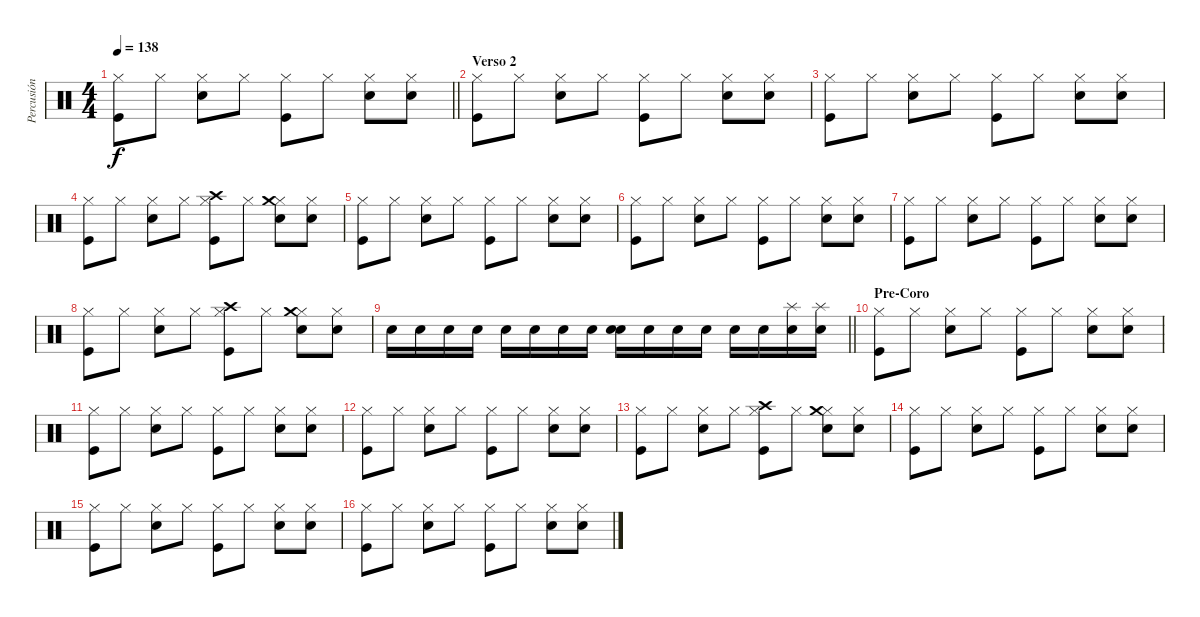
\track ("Percusión" "Percusión") {instrument percussion}
\staff {score}
\articulation defaults
\ts (4 4)
\tempo 138
\clef neutral
\barLineRight lightlight
\ks c
("Hi-Hat (closed)" "Kick (hit)").8{dy f} "Hi-Hat (closed)".8 ("Hi-Hat (closed)" "Snare (hit) 2").8 "Hi-Hat (closed)".8 ("Hi-Hat (closed)" "Kick (hit)").8 "Hi-Hat (closed)".8 ("Hi-Hat (closed)" "Snare (hit) 2").8 ("Hi-Hat (closed)" "Snare (hit) 2").8 |
\section ("" "Verso 2")
("Hi-Hat (closed)" "Kick (hit)").8 "Hi-Hat (closed)".8 ("Hi-Hat (closed)" "Snare (hit) 2").8 "Hi-Hat (closed)".8 ("Hi-Hat (closed)" "Kick (hit)").8 "Hi-Hat (closed)".8 ("Hi-Hat (closed)" "Snare (hit) 2").8 ("Hi-Hat (closed)" "Snare (hit) 2").8 |
("Hi-Hat (closed)" "Kick (hit)").8 "Hi-Hat (closed)".8 ("Hi-Hat (closed)" "Snare (hit) 2").8 "Hi-Hat (closed)".8 ("Hi-Hat (closed)" "Kick (hit)").8 "Hi-Hat (closed)".8 ("Hi-Hat (closed)" "Snare (hit) 2").8 ("Hi-Hat (closed)" "Snare (hit) 2").8 |
("Hi-Hat (closed)" "Kick (hit)").8 "Hi-Hat (closed)".8 ("Hi-Hat (closed)" "Snare (hit) 2").8 "Hi-Hat (closed)".8 ("Hi-Hat (closed)" "Kick (hit)" "Crash high (hit)").8 "Hi-Hat (closed)".8 ("Hi-Hat (closed)" "Snare (hit) 2" "Crash medium (hit)").8 ("Hi-Hat (closed)" "Snare (hit) 2").8 |
("Hi-Hat (closed)" "Kick (hit)").8 "Hi-Hat (closed)".8 ("Hi-Hat (closed)" "Snare (hit) 2").8 "Hi-Hat (closed)".8 ("Hi-Hat (closed)" "Kick (hit)").8 "Hi-Hat (closed)".8 ("Hi-Hat (closed)" "Snare (hit) 2").8 ("Hi-Hat (closed)" "Snare (hit) 2").8 |
("Hi-Hat (closed)" "Kick (hit)").8 "Hi-Hat (closed)".8 ("Hi-Hat (closed)" "Snare (hit) 2").8 "Hi-Hat (closed)".8 ("Hi-Hat (closed)" "Kick (hit)").8 "Hi-Hat (closed)".8 ("Hi-Hat (closed)" "Snare (hit) 2").8 ("Hi-Hat (closed)" "Snare (hit) 2").8 |
("Hi-Hat (closed)" "Kick (hit)").8 "Hi-Hat (closed)".8 ("Hi-Hat (closed)" "Snare (hit) 2").8 "Hi-Hat (closed)".8 ("Hi-Hat (closed)" "Kick (hit)").8 "Hi-Hat (closed)".8 ("Hi-Hat (closed)" "Snare (hit) 2").8 ("Hi-Hat (closed)" "Snare (hit) 2").8 |
("Hi-Hat (closed)" "Kick (hit)").8 "Hi-Hat (closed)".8 ("Hi-Hat (closed)" "Snare (hit) 2").8 "Hi-Hat (closed)".8 ("Hi-Hat (closed)" "Kick (hit)" "Crash high (hit)").8 "Hi-Hat (closed)".8 ("Hi-Hat (closed)" "Snare (hit) 2" "Crash medium (hit)").8 ("Hi-Hat (closed)" "Snare (hit) 2").8 |
\barLineRight lightlight "Snare (hit) 2".16 "Snare (hit) 2".16 "Snare (hit) 2".16 "Snare (hit) 2".16 "Snare (hit) 2".16 "Snare (hit) 2".16 "Snare (hit) 2".16 "Snare (hit) 2".16
("Snare (hit) 2" "Snare (hit) 2").16 "Snare (hit) 2".16 "Snare (hit) 2".16 "Snare (hit) 2".16 "Snare (hit) 2".16 "Snare (hit) 2".16 ("Splash (hit)" "Snare (hit) 2").16 ("Splash (hit)" "Snare (hit) 2").16 |
\section ("" "Pre-Coro")
("Hi-Hat (closed)" "Kick (hit)").8 "Hi-Hat (closed)".8 ("Hi-Hat (closed)" "Snare (hit) 2").8 "Hi-Hat (closed)".8 ("Hi-Hat (closed)" "Kick (hit)").8 "Hi-Hat (closed)".8 ("Hi-Hat (closed)" "Snare (hit) 2").8 ("Hi-Hat (closed)" "Snare (hit) 2").8 |
("Hi-Hat (closed)" "Kick (hit)").8 "Hi-Hat (closed)".8 ("Hi-Hat (closed)" "Snare (hit) 2").8 "Hi-Hat (closed)".8 ("Hi-Hat (closed)" "Kick (hit)").8 "Hi-Hat (closed)".8 ("Hi-Hat (closed)" "Snare (hit) 2").8 ("Hi-Hat (closed)" "Snare (hit) 2").8 |
("Hi-Hat (closed)" "Kick (hit)").8 "Hi-Hat (closed)".8 ("Hi-Hat (closed)" "Snare (hit) 2").8 "Hi-Hat (closed)".8 ("Hi-Hat (closed)" "Kick (hit)").8 "Hi-Hat (closed)".8 ("Hi-Hat (closed)" "Snare (hit) 2").8 ("Hi-Hat (closed)" "Snare (hit) 2").8 |
("Hi-Hat (closed)" "Kick (hit)").8 "Hi-Hat (closed)".8 ("Hi-Hat (closed)" "Snare (hit) 2").8 "Hi-Hat (closed)".8 ("Hi-Hat (closed)" "Kick (hit)" "Crash high (hit)").8 "Hi-Hat (closed)".8 ("Hi-Hat (closed)" "Snare (hit) 2" "Crash medium (hit)").8 ("Hi-Hat (closed)" "Snare (hit) 2").8 |
("Hi-Hat (closed)" "Kick (hit)").8 "Hi-Hat (closed)".8 ("Hi-Hat (closed)" "Snare (hit) 2").8 "Hi-Hat (closed)".8 ("Hi-Hat (closed)" "Kick (hit)").8 "Hi-Hat (closed)".8 ("Hi-Hat (closed)" "Snare (hit) 2").8 ("Hi-Hat (closed)" "Snare (hit) 2").8 |
("Hi-Hat (closed)" "Kick (hit)").8 "Hi-Hat (closed)".8 ("Hi-Hat (closed)" "Snare (hit) 2").8 "Hi-Hat (closed)".8 ("Hi-Hat (closed)" "Kick (hit)").8 "Hi-Hat (closed)".8 ("Hi-Hat (closed)" "Snare (hit) 2").8 ("Hi-Hat (closed)" "Snare (hit) 2").8 |
("Hi-Hat (closed)" "Kick (hit)").8 "Hi-Hat (closed)".8 ("Hi-Hat (closed)" "Snare (hit) 2").8 "Hi-Hat (closed)".8 ("Hi-Hat (closed)" "Kick (hit)").8 "Hi-Hat (closed)".8 ("Hi-Hat (closed)" "Snare (hit) 2").8 ("Hi-Hat (closed)" "Snare (hit) 2").8
